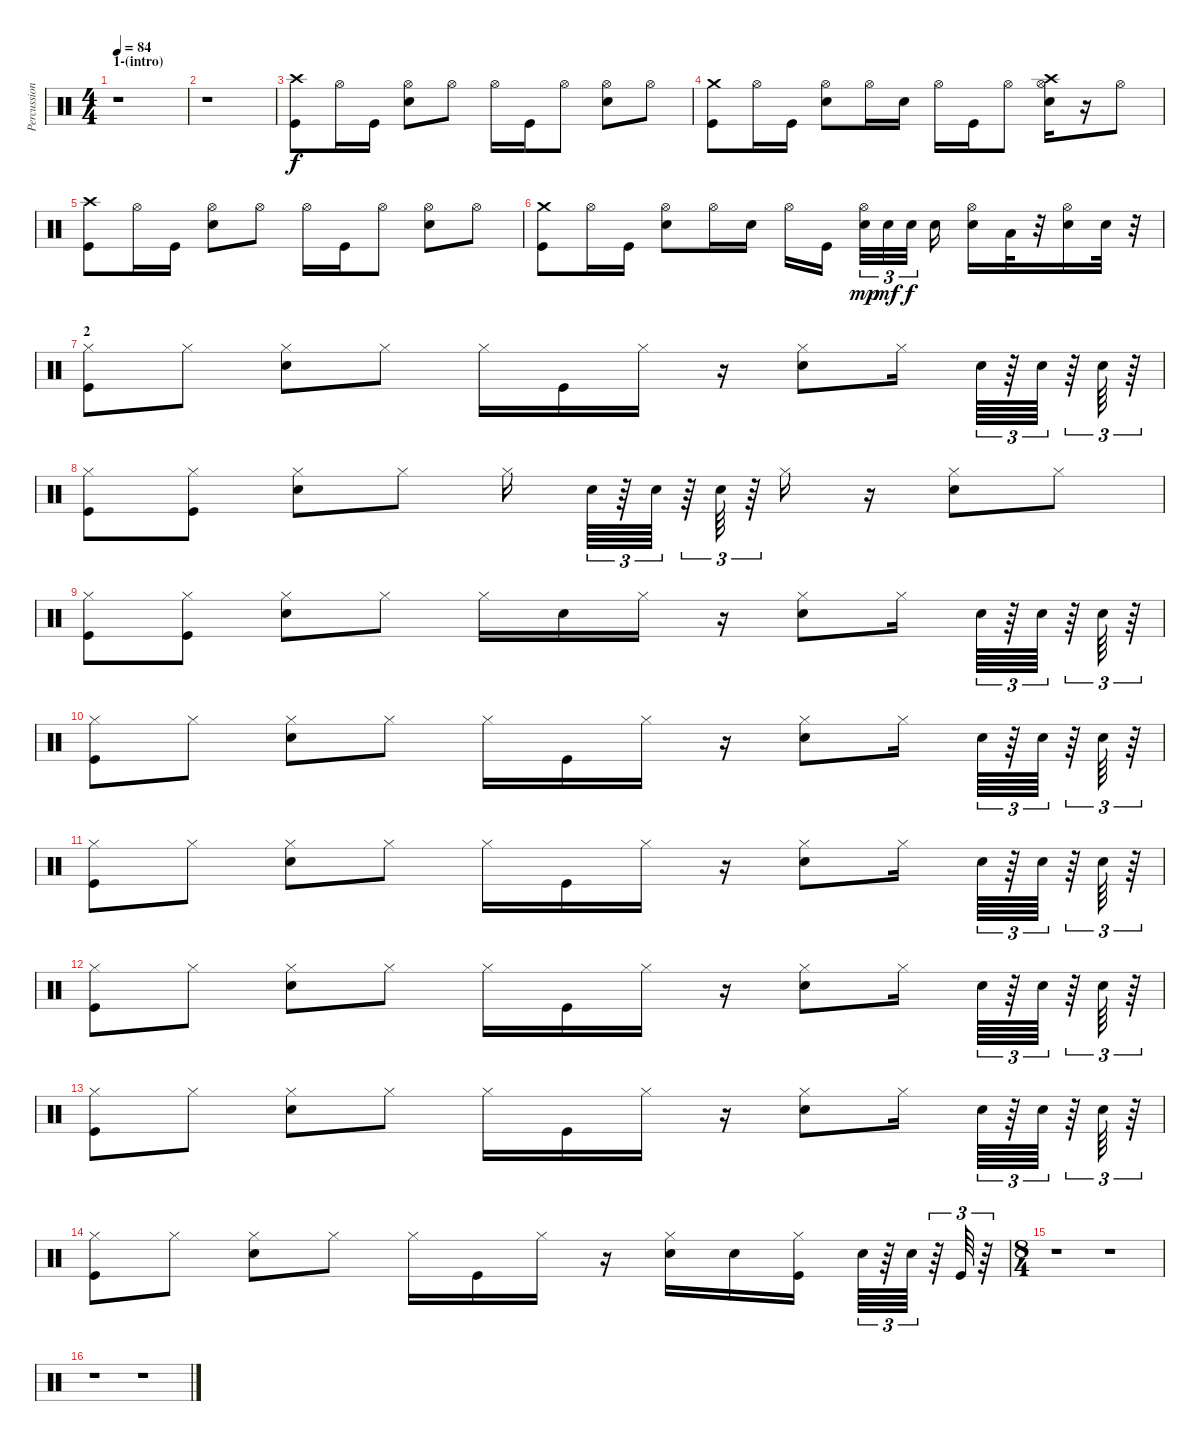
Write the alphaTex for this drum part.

\track ("Percussions" "Percussion") {instrument percussion}
\staff {score}
\articulation defaults
\ts (4 4)
\section ("" "1-(intro)")
\tempo 84
\clef neutral
\ks c
r.1{dy f} |
r.1 |
("Crash high (hit)" "Kick (hit)").8 "Hi-Hat (open)".16 "Kick (hit)".16 ("Hi-Hat (open)" "Snare (hit) 2").8 "Hi-Hat (open)".8 "Hi-Hat (open)".16 "Kick (hit)".16 "Hi-Hat (open)".8 ("Hi-Hat (open)" "Snare (hit) 2").8 "Hi-Hat (open)".8 |
("Crash medium (hit)" "Kick (hit)").8 "Hi-Hat (open)".16 "Kick (hit)".16 ("Hi-Hat (open)" "Snare (hit) 2").8 "Hi-Hat (open)".16 "Snare (hit) 2".16 "Hi-Hat (open)".16 "Kick (hit)".16 "Hi-Hat (open)".8 ("Hi-Hat (open)" "Crash high (hit)" "Snare (hit) 2").16 r.16 "Hi-Hat (open)".8 |
("Crash high (hit)" "Kick (hit)").8 "Hi-Hat (open)".16 "Kick (hit)".16 ("Hi-Hat (open)" "Snare (hit) 2").8 "Hi-Hat (open)".8 "Hi-Hat (open)".16 "Kick (hit)".16 "Hi-Hat (open)".8 ("Hi-Hat (open)" "Snare (hit) 2").8 "Hi-Hat (open)".8 |
("Crash medium (hit)" "Kick (hit)").8 "Hi-Hat (open)".16 "Kick (hit)".16 ("Hi-Hat (open)" "Snare (hit) 2").8 "Hi-Hat (open)".16 "Snare (hit) 2".16 "Hi-Hat (open)".16 "Kick (hit)".16 ("Hi-Hat (open)" "Snare (hit) 2").32{tu (3 2) dy mp} "Snare (hit) 2".32{tu (3 2) dy mf} "Snare (hit) 2".32{tu (3 2) dy f} "Snare (hit) 2".16 ("Hi-Hat (open)" "Snare (hit) 2").16 "Low Tom (hit)".32 r.32 ("Hi-Hat (open)" "Snare (hit) 2").16 "Snare (hit) 2".32 r.32 |
\section ("" "2")
("Hi-Hat (closed)" "Kick (hit)").8 "Hi-Hat (closed)".8 ("Hi-Hat (closed)" "Snare (hit) 2").8 "Hi-Hat (closed)".8 "Hi-Hat (closed)".16 "Kick (hit)".16 "Hi-Hat (closed)".16 r.16 ("Hi-Hat (closed)" "Snare (hit) 2").8 "Hi-Hat (closed)".16 "Snare (hit) 2".64{tu (3 2)} r.64{tu (3 2)} "Snare (hit) 2".64{tu (3 2)} r.64{tu (3 2)} "Snare (hit) 2".64{tu (3 2)} r.64{tu (3 2)} |
("Hi-Hat (closed)" "Kick (hit)").8 ("Hi-Hat (closed)" "Kick (hit)").8 ("Hi-Hat (closed)" "Snare (hit) 2").8 "Hi-Hat (closed)".8 "Hi-Hat (closed)".16 "Snare (hit) 2".64{tu (3 2)} r.64{tu (3 2)} "Snare (hit) 2".64{tu (3 2)} r.64{tu (3 2)} "Snare (hit) 2".64{tu (3 2)} r.64{tu (3 2)} "Hi-Hat (closed)".16 r.16 ("Hi-Hat (closed)" "Snare (hit) 2").8 "Hi-Hat (closed)".8 |
("Hi-Hat (closed)" "Kick (hit)").8 ("Hi-Hat (closed)" "Kick (hit)").8 ("Hi-Hat (closed)" "Snare (hit) 2").8 "Hi-Hat (closed)".8 "Hi-Hat (closed)".16 "Snare (hit) 2".16 "Hi-Hat (closed)".16 r.16 ("Hi-Hat (closed)" "Snare (hit) 2").8 "Hi-Hat (closed)".16 "Snare (hit) 2".64{tu (3 2)} r.64{tu (3 2)} "Snare (hit) 2".64{tu (3 2)} r.64{tu (3 2)} "Snare (hit) 2".64{tu (3 2)} r.64{tu (3 2)} |
("Hi-Hat (closed)" "Kick (hit)").8 "Hi-Hat (closed)".8 ("Hi-Hat (closed)" "Snare (hit) 2").8 "Hi-Hat (closed)".8 "Hi-Hat (closed)".16 "Kick (hit)".16 "Hi-Hat (closed)".16 r.16 ("Hi-Hat (closed)" "Snare (hit) 2").8 "Hi-Hat (closed)".16 "Snare (hit) 2".64{tu (3 2)} r.64{tu (3 2)} "Snare (hit) 2".64{tu (3 2)} r.64{tu (3 2)} "Snare (hit) 2".64{tu (3 2)} r.64{tu (3 2)} |
("Hi-Hat (closed)" "Kick (hit)").8 "Hi-Hat (closed)".8 ("Hi-Hat (closed)" "Snare (hit) 2").8 "Hi-Hat (closed)".8 "Hi-Hat (closed)".16 "Kick (hit)".16 "Hi-Hat (closed)".16 r.16 ("Hi-Hat (closed)" "Snare (hit) 2").8 "Hi-Hat (closed)".16 "Snare (hit) 2".64{tu (3 2)} r.64{tu (3 2)} "Snare (hit) 2".64{tu (3 2)} r.64{tu (3 2)} "Snare (hit) 2".64{tu (3 2)} r.64{tu (3 2)} |
("Hi-Hat (closed)" "Kick (hit)").8 "Hi-Hat (closed)".8 ("Hi-Hat (closed)" "Snare (hit) 2").8 "Hi-Hat (closed)".8 "Hi-Hat (closed)".16 "Kick (hit)".16 "Hi-Hat (closed)".16 r.16 ("Hi-Hat (closed)" "Snare (hit) 2").8 "Hi-Hat (closed)".16 "Snare (hit) 2".64{tu (3 2)} r.64{tu (3 2)} "Snare (hit) 2".64{tu (3 2)} r.64{tu (3 2)} "Snare (hit) 2".64{tu (3 2)} r.64{tu (3 2)} |
("Hi-Hat (closed)" "Kick (hit)").8 "Hi-Hat (closed)".8 ("Hi-Hat (closed)" "Snare (hit) 2").8 "Hi-Hat (closed)".8 "Hi-Hat (closed)".16 "Kick (hit)".16 "Hi-Hat (closed)".16 r.16 ("Hi-Hat (closed)" "Snare (hit) 2").8 "Hi-Hat (closed)".16 "Snare (hit) 2".64{tu (3 2)} r.64{tu (3 2)} "Snare (hit) 2".64{tu (3 2)} r.64{tu (3 2)} "Snare (hit) 2".64{tu (3 2)} r.64{tu (3 2)} |
("Hi-Hat (closed)" "Kick (hit)").8 "Hi-Hat (closed)".8 ("Hi-Hat (closed)" "Snare (hit) 2").8 "Hi-Hat (closed)".8 "Hi-Hat (closed)".16 "Kick (hit)".16 "Hi-Hat (closed)".16 r.16 ("Hi-Hat (closed)" "Snare (hit) 2").16 "Snare (hit) 2".16 ("Hi-Hat (closed)" "Kick (hit)").16 "Snare (hit) 2".64{tu (3 2)} r.64{tu (3 2)} "Snare (hit) 2".64{tu (3 2)} r.64{tu (3 2)} "Kick (hit)".64{tu (3 2)} r.64{tu (3 2)} |
\ts (8 4)
r.1 r.1 |
r.1 r.1
